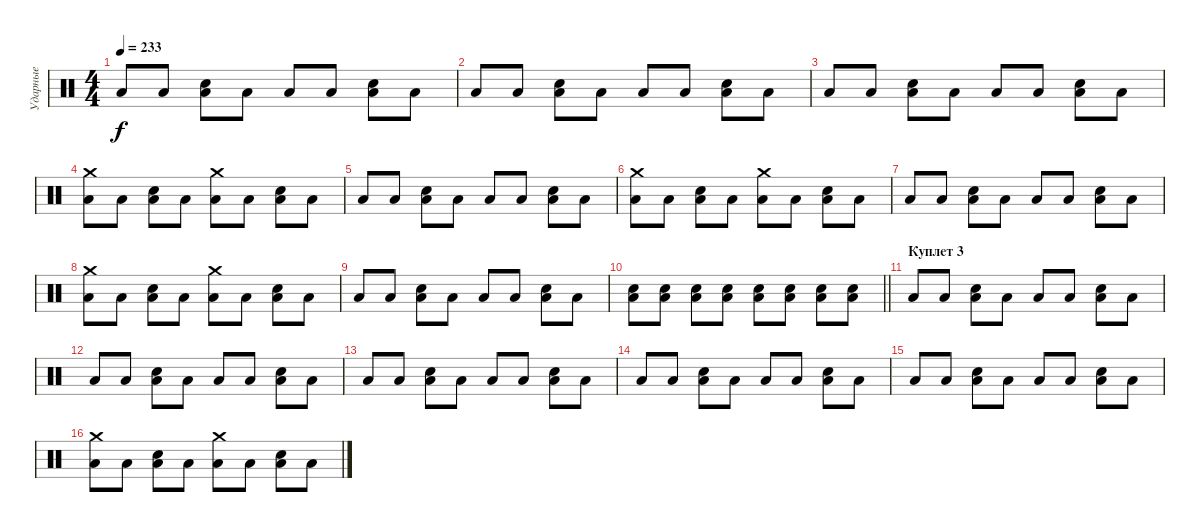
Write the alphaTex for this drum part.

\track ("Ударные" "Ударные") {instrument percussion}
\staff {score}
\articulation defaults
\ts (4 4)
\tempo 233
\clef neutral
\ks c "Low Tom (hit)".8{dy f} "Low Tom (hit)".8
("Electric Snare (hit)" "Low Tom (hit)").8 "Low Tom (hit)".8 "Low Tom (hit)".8 "Low Tom (hit)".8 ("Electric Snare (hit)" "Low Tom (hit)").8 "Low Tom (hit)".8 |
"Low Tom (hit)".8 "Low Tom (hit)".8 ("Electric Snare (hit)" "Low Tom (hit)").8 "Low Tom (hit)".8 "Low Tom (hit)".8 "Low Tom (hit)".8 ("Electric Snare (hit)" "Low Tom (hit)").8 "Low Tom (hit)".8 |
"Low Tom (hit)".8 "Low Tom (hit)".8 ("Electric Snare (hit)" "Low Tom (hit)").8 "Low Tom (hit)".8 "Low Tom (hit)".8 "Low Tom (hit)".8 ("Electric Snare (hit)" "Low Tom (hit)").8 "Low Tom (hit)".8 |
("Crash medium (hit)" "Low Tom (hit)").8 "Low Tom (hit)".8 ("Electric Snare (hit)" "Low Tom (hit)").8 "Low Tom (hit)".8 ("Crash medium (hit)" "Low Tom (hit)").8 "Low Tom (hit)".8 ("Electric Snare (hit)" "Low Tom (hit)").8 "Low Tom (hit)".8 |
"Low Tom (hit)".8 "Low Tom (hit)".8 ("Electric Snare (hit)" "Low Tom (hit)").8 "Low Tom (hit)".8 "Low Tom (hit)".8 "Low Tom (hit)".8 ("Electric Snare (hit)" "Low Tom (hit)").8 "Low Tom (hit)".8 |
("Crash medium (hit)" "Low Tom (hit)").8 "Low Tom (hit)".8 ("Electric Snare (hit)" "Low Tom (hit)").8 "Low Tom (hit)".8 ("Crash medium (hit)" "Low Tom (hit)").8 "Low Tom (hit)".8 ("Electric Snare (hit)" "Low Tom (hit)").8 "Low Tom (hit)".8 |
"Low Tom (hit)".8 "Low Tom (hit)".8 ("Electric Snare (hit)" "Low Tom (hit)").8 "Low Tom (hit)".8 "Low Tom (hit)".8 "Low Tom (hit)".8 ("Electric Snare (hit)" "Low Tom (hit)").8 "Low Tom (hit)".8 |
("Crash medium (hit)" "Low Tom (hit)").8 "Low Tom (hit)".8 ("Electric Snare (hit)" "Low Tom (hit)").8 "Low Tom (hit)".8 ("Crash medium (hit)" "Low Tom (hit)").8 "Low Tom (hit)".8 ("Electric Snare (hit)" "Low Tom (hit)").8 "Low Tom (hit)".8 |
"Low Tom (hit)".8 "Low Tom (hit)".8 ("Electric Snare (hit)" "Low Tom (hit)").8 "Low Tom (hit)".8 "Low Tom (hit)".8 "Low Tom (hit)".8 ("Electric Snare (hit)" "Low Tom (hit)").8 "Low Tom (hit)".8 |
\barLineRight lightlight
("Electric Snare (hit)" "Low Tom (hit)").8 ("Electric Snare (hit)" "Low Tom (hit)").8 ("Electric Snare (hit)" "Low Tom (hit)").8 ("Electric Snare (hit)" "Low Tom (hit)").8 ("Electric Snare (hit)" "Low Tom (hit)").8 ("Electric Snare (hit)" "Low Tom (hit)").8 ("Electric Snare (hit)" "Low Tom (hit)").8 ("Electric Snare (hit)" "Low Tom (hit)").8 |
\section ("" "Куплет 3")
"Low Tom (hit)".8 "Low Tom (hit)".8 ("Electric Snare (hit)" "Low Tom (hit)").8 "Low Tom (hit)".8 "Low Tom (hit)".8 "Low Tom (hit)".8 ("Electric Snare (hit)" "Low Tom (hit)").8 "Low Tom (hit)".8 |
"Low Tom (hit)".8 "Low Tom (hit)".8 ("Electric Snare (hit)" "Low Tom (hit)").8 "Low Tom (hit)".8 "Low Tom (hit)".8 "Low Tom (hit)".8 ("Electric Snare (hit)" "Low Tom (hit)").8 "Low Tom (hit)".8 |
"Low Tom (hit)".8 "Low Tom (hit)".8 ("Electric Snare (hit)" "Low Tom (hit)").8 "Low Tom (hit)".8 "Low Tom (hit)".8 "Low Tom (hit)".8 ("Electric Snare (hit)" "Low Tom (hit)").8 "Low Tom (hit)".8 |
"Low Tom (hit)".8 "Low Tom (hit)".8 ("Electric Snare (hit)" "Low Tom (hit)").8 "Low Tom (hit)".8 "Low Tom (hit)".8 "Low Tom (hit)".8 ("Electric Snare (hit)" "Low Tom (hit)").8 "Low Tom (hit)".8 |
"Low Tom (hit)".8 "Low Tom (hit)".8 ("Electric Snare (hit)" "Low Tom (hit)").8 "Low Tom (hit)".8 "Low Tom (hit)".8 "Low Tom (hit)".8 ("Electric Snare (hit)" "Low Tom (hit)").8 "Low Tom (hit)".8 |
("Crash medium (hit)" "Low Tom (hit)").8 "Low Tom (hit)".8 ("Electric Snare (hit)" "Low Tom (hit)").8 "Low Tom (hit)".8 ("Crash medium (hit)" "Low Tom (hit)").8 "Low Tom (hit)".8 ("Electric Snare (hit)" "Low Tom (hit)").8 "Low Tom (hit)".8
